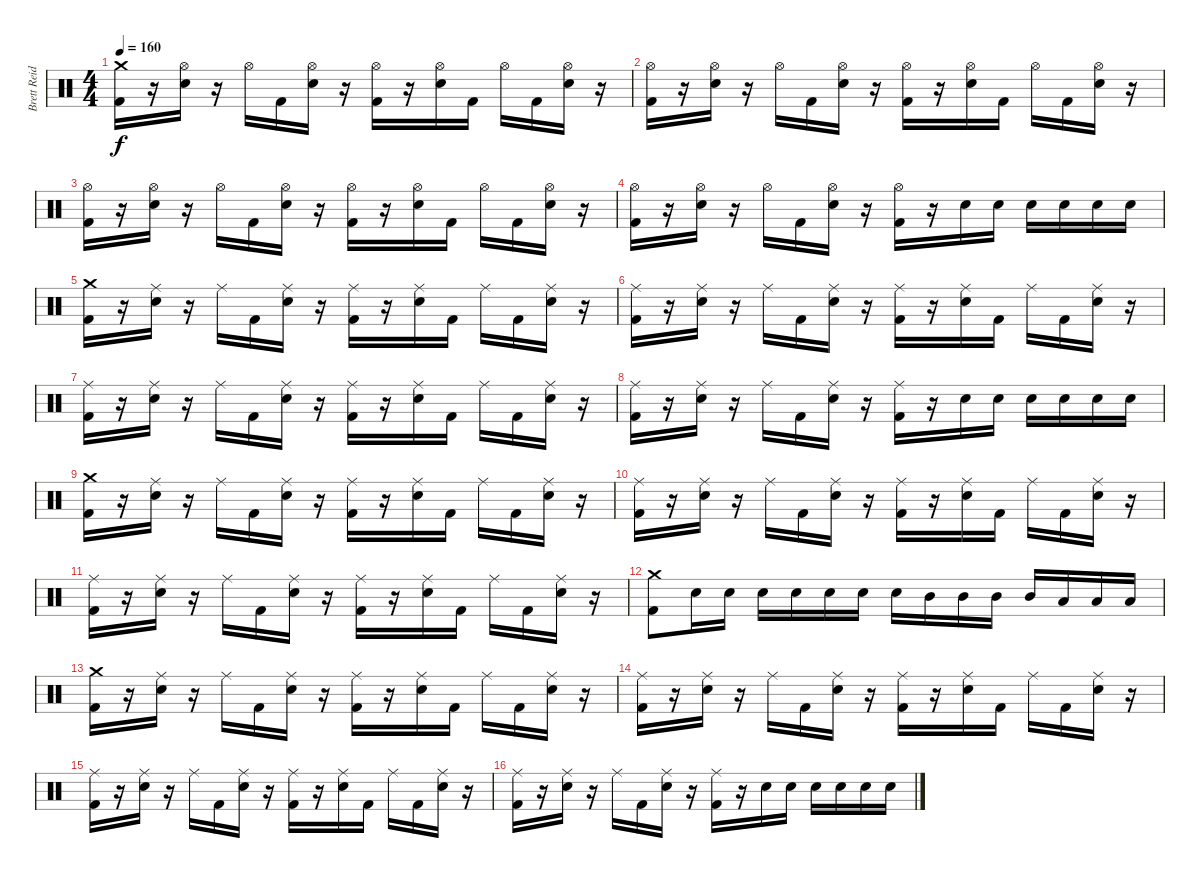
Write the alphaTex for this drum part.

\track ("Brett Reid" "Brett Reid") {instrument percussion}
\staff {score}
\articulation defaults
\ts (4 4)
\tempo 160
\clef neutral
\ks c
("Crash medium (hit)" "Kick (hit) 2").16{dy f} r.16 ("Hi-Hat (open)" "Snare (hit) 2").16 r.16 "Hi-Hat (open)".16 "Kick (hit) 2".16 ("Hi-Hat (open)" "Snare (hit) 2").16 r.16 ("Hi-Hat (open)" "Kick (hit) 2").16 r.16 ("Hi-Hat (open)" "Snare (hit) 2").16 "Kick (hit) 2".16 "Hi-Hat (open)".16 "Kick (hit) 2".16 ("Hi-Hat (open)" "Snare (hit) 2").16 r.16 |
("Hi-Hat (open)" "Kick (hit) 2").16 r.16 ("Hi-Hat (open)" "Snare (hit) 2").16 r.16 "Hi-Hat (open)".16 "Kick (hit) 2".16 ("Hi-Hat (open)" "Snare (hit) 2").16 r.16 ("Hi-Hat (open)" "Kick (hit) 2").16 r.16 ("Hi-Hat (open)" "Snare (hit) 2").16 "Kick (hit) 2".16 "Hi-Hat (open)".16 "Kick (hit) 2".16 ("Hi-Hat (open)" "Snare (hit) 2").16 r.16 |
("Hi-Hat (open)" "Kick (hit) 2").16 r.16 ("Hi-Hat (open)" "Snare (hit) 2").16 r.16 "Hi-Hat (open)".16 "Kick (hit) 2".16 ("Hi-Hat (open)" "Snare (hit) 2").16 r.16 ("Hi-Hat (open)" "Kick (hit) 2").16 r.16 ("Hi-Hat (open)" "Snare (hit) 2").16 "Kick (hit) 2".16 "Hi-Hat (open)".16 "Kick (hit) 2".16 ("Hi-Hat (open)" "Snare (hit) 2").16 r.16 |
("Hi-Hat (open)" "Kick (hit) 2").16 r.16 ("Hi-Hat (open)" "Snare (hit) 2").16 r.16 "Hi-Hat (open)".16 "Kick (hit) 2".16 ("Hi-Hat (open)" "Snare (hit) 2").16 r.16 ("Hi-Hat (open)" "Kick (hit) 2").16 r.16 "Snare (hit) 2".16 "Snare (hit) 2".16 "Snare (hit) 2".16 "Snare (hit) 2".16 "Snare (hit) 2".16 "Snare (hit) 2".16 |
("Crash medium (hit)" "Kick (hit) 2").16 r.16 ("Ride (middle)" "Snare (hit) 2").16 r.16 "Ride (middle)".16 "Kick (hit) 2".16 ("Ride (middle)" "Snare (hit) 2").16 r.16 ("Ride (middle)" "Kick (hit) 2").16 r.16 ("Ride (middle)" "Snare (hit) 2").16 "Kick (hit) 2".16 "Ride (middle)".16 "Kick (hit) 2".16 ("Ride (middle)" "Snare (hit) 2").16 r.16 |
("Ride (middle)" "Kick (hit) 2").16 r.16 ("Ride (middle)" "Snare (hit) 2").16 r.16 "Ride (middle)".16 "Kick (hit) 2".16 ("Ride (middle)" "Snare (hit) 2").16 r.16 ("Ride (middle)" "Kick (hit) 2").16 r.16 ("Ride (middle)" "Snare (hit) 2").16 "Kick (hit) 2".16 "Ride (middle)".16 "Kick (hit) 2".16 ("Ride (middle)" "Snare (hit) 2").16 r.16 |
("Ride (middle)" "Kick (hit) 2").16 r.16 ("Ride (middle)" "Snare (hit) 2").16 r.16 "Ride (middle)".16 "Kick (hit) 2".16 ("Ride (middle)" "Snare (hit) 2").16 r.16 ("Ride (middle)" "Kick (hit) 2").16 r.16 ("Ride (middle)" "Snare (hit) 2").16 "Kick (hit) 2".16 "Ride (middle)".16 "Kick (hit) 2".16 ("Ride (middle)" "Snare (hit) 2").16 r.16 |
("Ride (middle)" "Kick (hit) 2").16 r.16 ("Ride (middle)" "Snare (hit) 2").16 r.16 "Ride (middle)".16 "Kick (hit) 2".16 ("Ride (middle)" "Snare (hit) 2").16 r.16 ("Ride (middle)" "Kick (hit) 2").16 r.16 "Snare (hit) 2".16 "Snare (hit) 2".16 "Snare (hit) 2".16 "Snare (hit) 2".16 "Snare (hit) 2".16 "Snare (hit) 2".16 |
("Crash medium (hit)" "Kick (hit) 2").16 r.16 ("Ride (middle)" "Snare (hit) 2").16 r.16 "Ride (middle)".16 "Kick (hit) 2".16 ("Ride (middle)" "Snare (hit) 2").16 r.16 ("Ride (middle)" "Kick (hit) 2").16 r.16 ("Ride (middle)" "Snare (hit) 2").16 "Kick (hit) 2".16 "Ride (middle)".16 "Kick (hit) 2".16 ("Ride (middle)" "Snare (hit) 2").16 r.16 |
("Ride (middle)" "Kick (hit) 2").16 r.16 ("Ride (middle)" "Snare (hit) 2").16 r.16 "Ride (middle)".16 "Kick (hit) 2".16 ("Ride (middle)" "Snare (hit) 2").16 r.16 ("Ride (middle)" "Kick (hit) 2").16 r.16 ("Ride (middle)" "Snare (hit) 2").16 "Kick (hit) 2".16 "Ride (middle)".16 "Kick (hit) 2".16 ("Ride (middle)" "Snare (hit) 2").16 r.16 |
("Ride (middle)" "Kick (hit) 2").16 r.16 ("Ride (middle)" "Snare (hit) 2").16 r.16 "Ride (middle)".16 "Kick (hit) 2".16 ("Ride (middle)" "Snare (hit) 2").16 r.16 ("Ride (middle)" "Kick (hit) 2").16 r.16 ("Ride (middle)" "Snare (hit) 2").16 "Kick (hit) 2".16 "Ride (middle)".16 "Kick (hit) 2".16 ("Ride (middle)" "Snare (hit) 2").16 r.16 |
("Crash medium (hit)" "Kick (hit) 2").8 "Snare (hit) 2".16 "Snare (hit) 2".16 "Snare (hit) 2".16 "Snare (hit) 2".16 "Snare (hit) 2".16 "Snare (hit) 2".16 "Snare (hit) 2".16 "Mid Tom (hit)".16 "Mid Tom (hit)".16 "Mid Tom (hit)".16 "Mid Tom (hit)".16 "Low Floor Tom (hit)".16 "Low Floor Tom (hit)".16 "Low Floor Tom (hit)".16 |
("Crash medium (hit)" "Kick (hit) 2").16 r.16 ("Ride (middle)" "Snare (hit) 2").16 r.16 "Ride (middle)".16 "Kick (hit) 2".16 ("Ride (middle)" "Snare (hit) 2").16 r.16 ("Ride (middle)" "Kick (hit) 2").16 r.16 ("Ride (middle)" "Snare (hit) 2").16 "Kick (hit) 2".16 "Ride (middle)".16 "Kick (hit) 2".16 ("Ride (middle)" "Snare (hit) 2").16 r.16 |
("Ride (middle)" "Kick (hit) 2").16 r.16 ("Ride (middle)" "Snare (hit) 2").16 r.16 "Ride (middle)".16 "Kick (hit) 2".16 ("Ride (middle)" "Snare (hit) 2").16 r.16 ("Ride (middle)" "Kick (hit) 2").16 r.16 ("Ride (middle)" "Snare (hit) 2").16 "Kick (hit) 2".16 "Ride (middle)".16 "Kick (hit) 2".16 ("Ride (middle)" "Snare (hit) 2").16 r.16 |
("Ride (middle)" "Kick (hit) 2").16 r.16 ("Ride (middle)" "Snare (hit) 2").16 r.16 "Ride (middle)".16 "Kick (hit) 2".16 ("Ride (middle)" "Snare (hit) 2").16 r.16 ("Ride (middle)" "Kick (hit) 2").16 r.16 ("Ride (middle)" "Snare (hit) 2").16 "Kick (hit) 2".16 "Ride (middle)".16 "Kick (hit) 2".16 ("Ride (middle)" "Snare (hit) 2").16 r.16 |
("Ride (middle)" "Kick (hit) 2").16 r.16 ("Ride (middle)" "Snare (hit) 2").16 r.16 "Ride (middle)".16 "Kick (hit) 2".16 ("Ride (middle)" "Snare (hit) 2").16 r.16 ("Ride (middle)" "Kick (hit) 2").16 r.16 "Snare (hit) 2".16 "Snare (hit) 2".16 "Snare (hit) 2".16 "Snare (hit) 2".16 "Snare (hit) 2".16 "Snare (hit) 2".16
